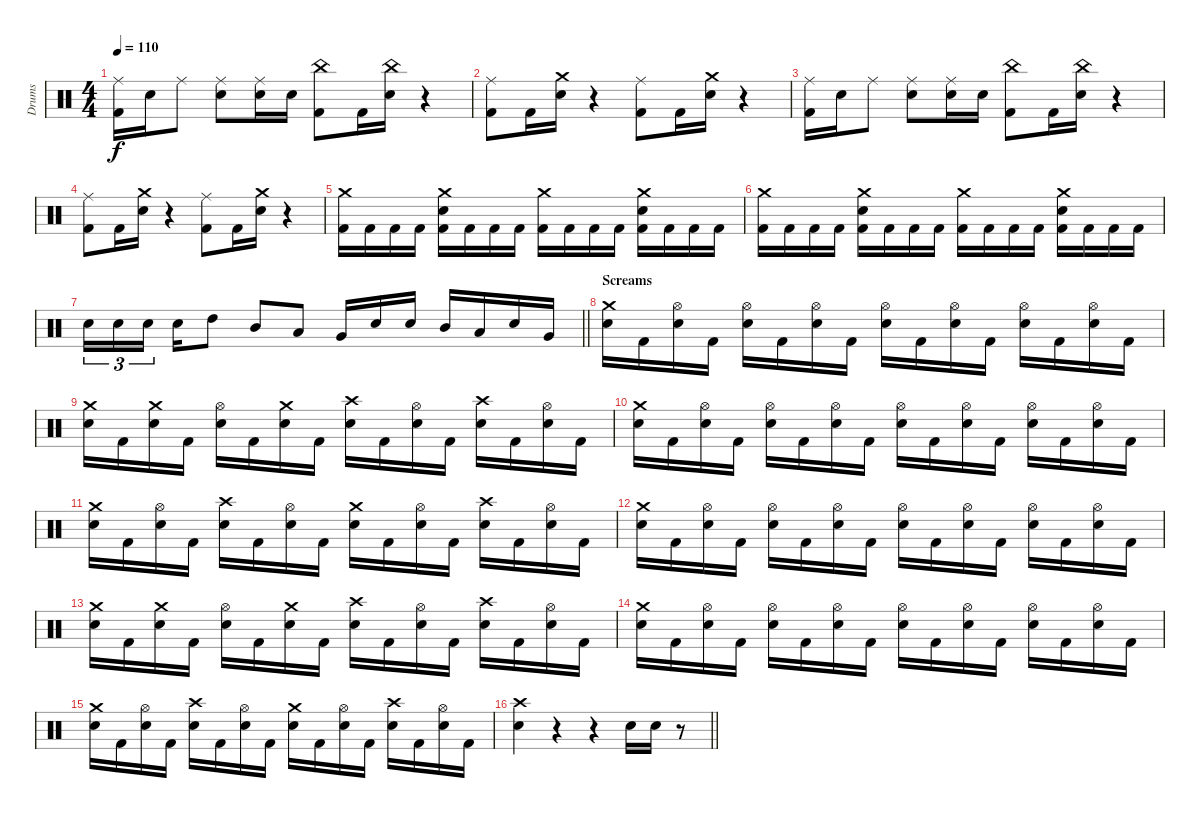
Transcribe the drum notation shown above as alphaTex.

\track ("Drums" "Drums") {instrument percussion}
\staff {score}
\articulation defaults
\ts (4 4)
\tempo 110
\clef neutral
\ks c
("Ride (middle)" "Kick (hit) 2").16{dy f} "Electric Snare (hit)".16 "Ride (middle)".8 ("Ride (middle)" "Electric Snare (hit)").8 ("Ride (middle)" "Electric Snare (hit)").16 "Electric Snare (hit)".16 ("China (hit)" "Kick (hit) 2").8 "Kick (hit) 2".16 ("China (hit)" "Electric Snare (hit)").16 r.4 |
("Ride (middle)" "Kick (hit) 2").8 "Kick (hit) 2".16 ("Crash medium (hit)" "Electric Snare (hit)").16 r.4 ("Ride (middle)" "Kick (hit) 2").8 "Kick (hit) 2".16 ("Crash medium (hit)" "Electric Snare (hit)").16 r.4 |
("Ride (middle)" "Kick (hit) 2").16 "Electric Snare (hit)".16 "Ride (middle)".8 ("Ride (middle)" "Electric Snare (hit)").8 ("Ride (middle)" "Electric Snare (hit)").16 "Electric Snare (hit)".16 ("China (hit)" "Kick (hit) 2").8 "Kick (hit) 2".16 ("China (hit)" "Electric Snare (hit)").16 r.4 |
("Ride (middle)" "Kick (hit) 2").8 "Kick (hit) 2".16 ("Crash medium (hit)" "Electric Snare (hit)").16 r.4 ("Ride (middle)" "Kick (hit) 2").8 "Kick (hit) 2".16 ("Crash medium (hit)" "Electric Snare (hit)").16 r.4 |
("Crash medium (hit)" "Kick (hit) 2").16 "Kick (hit) 2".16 "Kick (hit) 2".16 "Kick (hit) 2".16 ("Crash medium (hit)" "Electric Snare (hit)" "Kick (hit) 2").16 "Kick (hit) 2".16 "Kick (hit) 2".16 "Kick (hit) 2".16 ("Crash medium (hit)" "Kick (hit) 2").16 "Kick (hit) 2".16 "Kick (hit) 2".16 "Kick (hit) 2".16 ("Crash medium (hit)" "Electric Snare (hit)" "Kick (hit) 2").16 "Kick (hit) 2".16 "Kick (hit) 2".16 "Kick (hit) 2".16 |
("Crash medium (hit)" "Kick (hit) 2").16 "Kick (hit) 2".16 "Kick (hit) 2".16 "Kick (hit) 2".16 ("Crash medium (hit)" "Electric Snare (hit)" "Kick (hit) 2").16 "Kick (hit) 2".16 "Kick (hit) 2".16 "Kick (hit) 2".16 ("Crash medium (hit)" "Kick (hit) 2").16 "Kick (hit) 2".16 "Kick (hit) 2".16 "Kick (hit) 2".16 ("Crash medium (hit)" "Electric Snare (hit)" "Kick (hit) 2").16 "Kick (hit) 2".16 "Kick (hit) 2".16 "Kick (hit) 2".16 |
\barLineRight lightlight "Electric Snare (hit)".16{tu (3 2)} "Electric Snare (hit)".16{tu (3 2)} "Electric Snare (hit)".16{tu (3 2)} "Electric Snare (hit)".16 "High Tom (hit)".8 "Mid Tom (hit)".8 "Low Tom (hit)".8 "Very Low Tom (hit)".16 "Electric Snare (hit)".16 "Electric Snare (hit)".16 "Mid Tom (hit)".16 "Low Tom (hit)".16 "Electric Snare (hit)".16 "Very Low Tom (hit)".16
|
\section ("" "Screams")
("Crash medium (hit)" "Electric Snare (hit)").16 "Kick (hit) 2".16 ("Hi-Hat (open)" "Electric Snare (hit)").16 "Kick (hit) 2".16 ("Hi-Hat (open)" "Electric Snare (hit)").16 "Kick (hit) 2".16 ("Hi-Hat (open)" "Electric Snare (hit)").16 "Kick (hit) 2".16 ("Hi-Hat (open)" "Electric Snare (hit)").16 "Kick (hit) 2".16 ("Hi-Hat (open)" "Electric Snare (hit)").16 "Kick (hit) 2".16 ("Hi-Hat (open)" "Electric Snare (hit)").16 "Kick (hit) 2".16 ("Hi-Hat (open)" "Electric Snare (hit)").16 "Kick (hit) 2".16 |
("Crash medium (hit)" "Electric Snare (hit)").16 "Kick (hit) 2".16 ("Crash medium (hit)" "Electric Snare (hit)").16 "Kick (hit) 2".16 ("Hi-Hat (open)" "Electric Snare (hit)").16 "Kick (hit) 2".16 ("Crash medium (hit)" "Electric Snare (hit)").16 "Kick (hit) 2".16 ("Crash high (hit)" "Electric Snare (hit)").16 "Kick (hit) 2".16 ("Hi-Hat (open)" "Electric Snare (hit)").16 "Kick (hit) 2".16 ("Crash high (hit)" "Electric Snare (hit)").16 "Kick (hit) 2".16 ("Hi-Hat (open)" "Electric Snare (hit)").16 "Kick (hit) 2".16 |
("Crash medium (hit)" "Electric Snare (hit)").16 "Kick (hit) 2".16 ("Hi-Hat (open)" "Electric Snare (hit)").16 "Kick (hit) 2".16 ("Hi-Hat (open)" "Electric Snare (hit)").16 "Kick (hit) 2".16 ("Hi-Hat (open)" "Electric Snare (hit)").16 "Kick (hit) 2".16 ("Hi-Hat (open)" "Electric Snare (hit)").16 "Kick (hit) 2".16 ("Hi-Hat (open)" "Electric Snare (hit)").16 "Kick (hit) 2".16 ("Hi-Hat (open)" "Electric Snare (hit)").16 "Kick (hit) 2".16 ("Hi-Hat (open)" "Electric Snare (hit)").16 "Kick (hit) 2".16 |
("Crash medium (hit)" "Electric Snare (hit)").16 "Kick (hit) 2".16 ("Hi-Hat (open)" "Electric Snare (hit)").16 "Kick (hit) 2".16 ("Crash high (hit)" "Electric Snare (hit)").16 "Kick (hit) 2".16 ("Hi-Hat (open)" "Electric Snare (hit)").16 "Kick (hit) 2".16 ("Crash medium (hit)" "Electric Snare (hit)").16 "Kick (hit) 2".16 ("Hi-Hat (open)" "Electric Snare (hit)").16 "Kick (hit) 2".16 ("Crash high (hit)" "Electric Snare (hit)").16 "Kick (hit) 2".16 ("Hi-Hat (open)" "Electric Snare (hit)").16 "Kick (hit) 2".16 |
("Crash medium (hit)" "Electric Snare (hit)").16 "Kick (hit) 2".16 ("Hi-Hat (open)" "Electric Snare (hit)").16 "Kick (hit) 2".16 ("Hi-Hat (open)" "Electric Snare (hit)").16 "Kick (hit) 2".16 ("Hi-Hat (open)" "Electric Snare (hit)").16 "Kick (hit) 2".16 ("Hi-Hat (open)" "Electric Snare (hit)").16 "Kick (hit) 2".16 ("Hi-Hat (open)" "Electric Snare (hit)").16 "Kick (hit) 2".16 ("Hi-Hat (open)" "Electric Snare (hit)").16 "Kick (hit) 2".16 ("Hi-Hat (open)" "Electric Snare (hit)").16 "Kick (hit) 2".16 |
("Crash medium (hit)" "Electric Snare (hit)").16 "Kick (hit) 2".16 ("Crash medium (hit)" "Electric Snare (hit)").16 "Kick (hit) 2".16 ("Hi-Hat (open)" "Electric Snare (hit)").16 "Kick (hit) 2".16 ("Crash medium (hit)" "Electric Snare (hit)").16 "Kick (hit) 2".16 ("Crash high (hit)" "Electric Snare (hit)").16 "Kick (hit) 2".16 ("Hi-Hat (open)" "Electric Snare (hit)").16 "Kick (hit) 2".16 ("Crash high (hit)" "Electric Snare (hit)").16 "Kick (hit) 2".16 ("Hi-Hat (open)" "Electric Snare (hit)").16 "Kick (hit) 2".16 |
("Crash medium (hit)" "Electric Snare (hit)").16 "Kick (hit) 2".16 ("Hi-Hat (open)" "Electric Snare (hit)").16 "Kick (hit) 2".16 ("Hi-Hat (open)" "Electric Snare (hit)").16 "Kick (hit) 2".16 ("Hi-Hat (open)" "Electric Snare (hit)").16 "Kick (hit) 2".16 ("Hi-Hat (open)" "Electric Snare (hit)").16 "Kick (hit) 2".16 ("Hi-Hat (open)" "Electric Snare (hit)").16 "Kick (hit) 2".16 ("Hi-Hat (open)" "Electric Snare (hit)").16 "Kick (hit) 2".16 ("Hi-Hat (open)" "Electric Snare (hit)").16 "Kick (hit) 2".16 |
("Crash medium (hit)" "Electric Snare (hit)").16 "Kick (hit) 2".16 ("Hi-Hat (open)" "Electric Snare (hit)").16 "Kick (hit) 2".16 ("Crash high (hit)" "Electric Snare (hit)").16 "Kick (hit) 2".16 ("Hi-Hat (open)" "Electric Snare (hit)").16 "Kick (hit) 2".16 ("Crash medium (hit)" "Electric Snare (hit)").16 "Kick (hit) 2".16 ("Hi-Hat (open)" "Electric Snare (hit)").16 "Kick (hit) 2".16 ("Crash high (hit)" "Electric Snare (hit)").16 "Kick (hit) 2".16 ("Hi-Hat (open)" "Electric Snare (hit)").16 "Kick (hit) 2".16 |
\barLineRight lightlight
("Crash high (hit)" "Electric Snare (hit)").4 r.4 r.4 "Electric Snare (hit)".16 "Electric Snare (hit)".16 r.8
